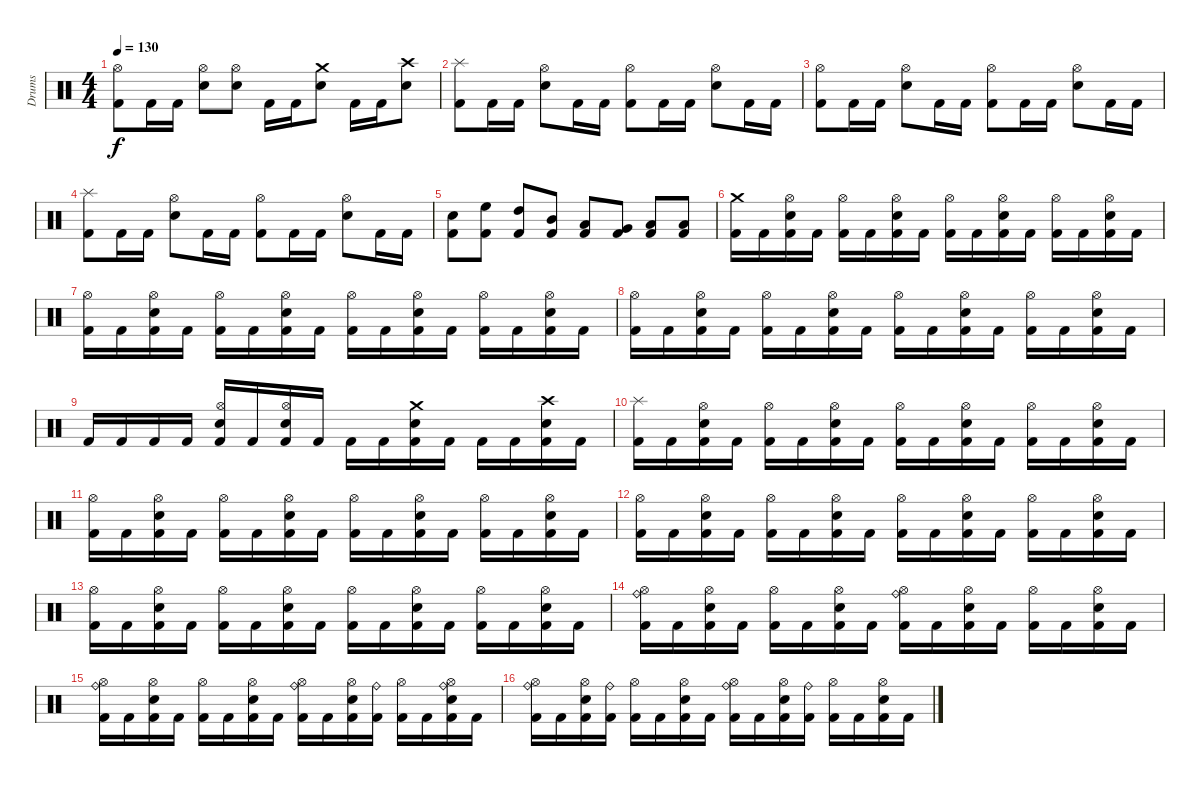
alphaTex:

\track ("Drums" "Drums") {instrument percussion}
\staff {score}
\articulation defaults
\ts (4 4)
\tempo 130
\clef neutral
\ks c
("Kick (hit) 2" "Hi-Hat (open)").8{dy f} "Kick (hit) 2".16 "Kick (hit) 2".16 ("Electric Snare (hit)" "Hi-Hat (open)").8 ("Electric Snare (hit)" "Hi-Hat (open)").8 "Kick (hit) 2".16 "Kick (hit) 2".16 ("Electric Snare (hit)" "Crash medium (hit)").8 "Kick (hit) 2".16 "Kick (hit) 2".16 ("Electric Snare (hit)" "Crash high (hit)").8 |
("Kick (hit) 2" "Splash (hit)").8 "Kick (hit) 2".16 "Kick (hit) 2".16 ("Electric Snare (hit)" "Hi-Hat (open)").8 "Kick (hit) 2".16 "Kick (hit) 2".16 ("Kick (hit) 2" "Hi-Hat (open)").8 "Kick (hit) 2".16 "Kick (hit) 2".16 ("Electric Snare (hit)" "Hi-Hat (open)").8 "Kick (hit) 2".16 "Kick (hit) 2".16 |
("Kick (hit) 2" "Hi-Hat (open)").8 "Kick (hit) 2".16 "Kick (hit) 2".16 ("Electric Snare (hit)" "Hi-Hat (open)").8 "Kick (hit) 2".16 "Kick (hit) 2".16 ("Kick (hit) 2" "Hi-Hat (open)").8 "Kick (hit) 2".16 "Kick (hit) 2".16 ("Electric Snare (hit)" "Hi-Hat (open)").8 "Kick (hit) 2".16 "Kick (hit) 2".16 |
("Kick (hit) 2" "Splash (hit)").8 "Kick (hit) 2".16 "Kick (hit) 2".16 ("Electric Snare (hit)" "Hi-Hat (open)").8 "Kick (hit) 2".16 "Kick (hit) 2".16 ("Kick (hit) 2" "Hi-Hat (open)").8 "Kick (hit) 2".16 "Kick (hit) 2".16 ("Electric Snare (hit)" "Hi-Hat (open)").8 "Kick (hit) 2".16 "Kick (hit) 2".16 |
("Kick (hit) 2" "Electric Snare (hit)").8 ("Kick (hit) 2" "High Floor Tom (hit)").8 ("Kick (hit) 2" "High Tom (hit)").8 ("Kick (hit) 2" "Mid Tom (hit)").8 ("Kick (hit) 2" "Low Tom (hit)").8 ("Kick (hit) 2" "Very Low Tom (hit)").8 ("Kick (hit) 2" "Low Floor Tom (hit)").8 ("Kick (hit) 2" "Low Floor Tom (hit)").8 |
\section ("" "")
("Kick (hit) 2" "Crash medium (hit)").16 "Kick (hit) 2".16 ("Kick (hit) 2" "Electric Snare (hit)" "Hi-Hat (open)").16 "Kick (hit) 2".16 ("Kick (hit) 2" "Hi-Hat (open)").16 "Kick (hit) 2".16 ("Kick (hit) 2" "Electric Snare (hit)" "Hi-Hat (open)").16 "Kick (hit) 2".16 ("Kick (hit) 2" "Hi-Hat (open)").16 "Kick (hit) 2".16 ("Kick (hit) 2" "Electric Snare (hit)" "Hi-Hat (open)").16 "Kick (hit) 2".16 ("Kick (hit) 2" "Hi-Hat (open)").16 "Kick (hit) 2".16 ("Kick (hit) 2" "Electric Snare (hit)" "Hi-Hat (open)").16 "Kick (hit) 2".16 |
("Kick (hit) 2" "Hi-Hat (open)").16 "Kick (hit) 2".16 ("Kick (hit) 2" "Electric Snare (hit)" "Hi-Hat (open)").16 "Kick (hit) 2".16 ("Kick (hit) 2" "Hi-Hat (open)").16 "Kick (hit) 2".16 ("Kick (hit) 2" "Electric Snare (hit)" "Hi-Hat (open)").16 "Kick (hit) 2".16 ("Kick (hit) 2" "Hi-Hat (open)").16 "Kick (hit) 2".16 ("Kick (hit) 2" "Electric Snare (hit)" "Hi-Hat (open)").16 "Kick (hit) 2".16 ("Kick (hit) 2" "Hi-Hat (open)").16 "Kick (hit) 2".16 ("Kick (hit) 2" "Electric Snare (hit)" "Hi-Hat (open)").16 "Kick (hit) 2".16 |
("Kick (hit) 2" "Hi-Hat (open)").16 "Kick (hit) 2".16 ("Kick (hit) 2" "Electric Snare (hit)" "Hi-Hat (open)").16 "Kick (hit) 2".16 ("Kick (hit) 2" "Hi-Hat (open)").16 "Kick (hit) 2".16 ("Kick (hit) 2" "Electric Snare (hit)" "Hi-Hat (open)").16 "Kick (hit) 2".16 ("Kick (hit) 2" "Hi-Hat (open)").16 "Kick (hit) 2".16 ("Kick (hit) 2" "Electric Snare (hit)" "Hi-Hat (open)").16 "Kick (hit) 2".16 ("Kick (hit) 2" "Hi-Hat (open)").16 "Kick (hit) 2".16 ("Kick (hit) 2" "Electric Snare (hit)" "Hi-Hat (open)").16 "Kick (hit) 2".16 |
"Kick (hit) 2".16 "Kick (hit) 2".16 "Kick (hit) 2".16 "Kick (hit) 2".16 ("Kick (hit) 2" "Electric Snare (hit)" "Hi-Hat (open)").16 "Kick (hit) 2".16 ("Kick (hit) 2" "Electric Snare (hit)" "Hi-Hat (open)").16 "Kick (hit) 2".16 "Kick (hit) 2".16 "Kick (hit) 2".16 ("Kick (hit) 2" "Electric Snare (hit)" "Crash medium (hit)").16 "Kick (hit) 2".16 "Kick (hit) 2".16 "Kick (hit) 2".16 ("Kick (hit) 2" "Electric Snare (hit)" "Crash high (hit)").16 "Kick (hit) 2".16 |
("Kick (hit) 2" "Splash (hit)").16 "Kick (hit) 2".16 ("Kick (hit) 2" "Electric Snare (hit)" "Hi-Hat (open)").16 "Kick (hit) 2".16 ("Kick (hit) 2" "Hi-Hat (open)").16 "Kick (hit) 2".16 ("Kick (hit) 2" "Electric Snare (hit)" "Hi-Hat (open)").16 "Kick (hit) 2".16 ("Kick (hit) 2" "Hi-Hat (open)").16 "Kick (hit) 2".16 ("Kick (hit) 2" "Electric Snare (hit)" "Hi-Hat (open)").16 "Kick (hit) 2".16 ("Kick (hit) 2" "Hi-Hat (open)").16 "Kick (hit) 2".16 ("Kick (hit) 2" "Electric Snare (hit)" "Hi-Hat (open)").16 "Kick (hit) 2".16 |
("Kick (hit) 2" "Hi-Hat (open)").16 "Kick (hit) 2".16 ("Kick (hit) 2" "Electric Snare (hit)" "Hi-Hat (open)").16 "Kick (hit) 2".16 ("Kick (hit) 2" "Hi-Hat (open)").16 "Kick (hit) 2".16 ("Kick (hit) 2" "Electric Snare (hit)" "Hi-Hat (open)").16 "Kick (hit) 2".16 ("Kick (hit) 2" "Hi-Hat (open)").16 "Kick (hit) 2".16 ("Kick (hit) 2" "Electric Snare (hit)" "Hi-Hat (open)").16 "Kick (hit) 2".16 ("Kick (hit) 2" "Hi-Hat (open)").16 "Kick (hit) 2".16 ("Kick (hit) 2" "Electric Snare (hit)" "Hi-Hat (open)").16 "Kick (hit) 2".16 |
("Kick (hit) 2" "Hi-Hat (open)").16 "Kick (hit) 2".16 ("Kick (hit) 2" "Electric Snare (hit)" "Hi-Hat (open)").16 "Kick (hit) 2".16 ("Kick (hit) 2" "Hi-Hat (open)").16 "Kick (hit) 2".16 ("Kick (hit) 2" "Electric Snare (hit)" "Hi-Hat (open)").16 "Kick (hit) 2".16 ("Kick (hit) 2" "Hi-Hat (open)").16 "Kick (hit) 2".16 ("Kick (hit) 2" "Electric Snare (hit)" "Hi-Hat (open)").16 "Kick (hit) 2".16 ("Kick (hit) 2" "Hi-Hat (open)").16 "Kick (hit) 2".16 ("Kick (hit) 2" "Electric Snare (hit)" "Hi-Hat (open)").16 "Kick (hit) 2".16 |
("Kick (hit) 2" "Hi-Hat (open)").16 "Kick (hit) 2".16 ("Kick (hit) 2" "Electric Snare (hit)" "Hi-Hat (open)").16 "Kick (hit) 2".16 ("Kick (hit) 2" "Hi-Hat (open)").16 "Kick (hit) 2".16 ("Kick (hit) 2" "Electric Snare (hit)" "Hi-Hat (open)").16 "Kick (hit) 2".16 ("Kick (hit) 2" "Hi-Hat (open)").16 "Kick (hit) 2".16 ("Kick (hit) 2" "Electric Snare (hit)" "Hi-Hat (open)").16 "Kick (hit) 2".16 ("Kick (hit) 2" "Hi-Hat (open)").16 "Kick (hit) 2".16 ("Kick (hit) 2" "Electric Snare (hit)" "Hi-Hat (open)").16 "Kick (hit) 2".16 |
("Kick (hit) 2" "Hi-Hat (open)" "Ride (bell)").16 "Kick (hit) 2".16 ("Kick (hit) 2" "Electric Snare (hit)" "Hi-Hat (open)").16 "Kick (hit) 2".16 ("Kick (hit) 2" "Hi-Hat (open)").16 "Kick (hit) 2".16 ("Kick (hit) 2" "Electric Snare (hit)" "Hi-Hat (open)").16 "Kick (hit) 2".16 ("Kick (hit) 2" "Hi-Hat (open)" "Ride (bell)").16 "Kick (hit) 2".16 ("Kick (hit) 2" "Electric Snare (hit)" "Hi-Hat (open)").16 "Kick (hit) 2".16 ("Kick (hit) 2" "Hi-Hat (open)").16 "Kick (hit) 2".16 ("Kick (hit) 2" "Electric Snare (hit)" "Hi-Hat (open)").16 "Kick (hit) 2".16 |
("Kick (hit) 2" "Hi-Hat (open)" "Ride (bell)").16 "Kick (hit) 2".16 ("Kick (hit) 2" "Electric Snare (hit)" "Hi-Hat (open)").16 "Kick (hit) 2".16 ("Kick (hit) 2" "Hi-Hat (open)").16 "Kick (hit) 2".16 ("Kick (hit) 2" "Electric Snare (hit)" "Hi-Hat (open)").16 "Kick (hit) 2".16 ("Kick (hit) 2" "Hi-Hat (open)" "Ride (bell)").16 "Kick (hit) 2".16 ("Kick (hit) 2" "Electric Snare (hit)" "Hi-Hat (open)").16 ("Kick (hit) 2" "Ride (bell)").16 ("Kick (hit) 2" "Hi-Hat (open)").16 "Kick (hit) 2".16 ("Kick (hit) 2" "Electric Snare (hit)" "Hi-Hat (open)" "Ride (bell)").16 "Kick (hit) 2".16 |
("Kick (hit) 2" "Hi-Hat (open)" "Ride (bell)").16 "Kick (hit) 2".16 ("Kick (hit) 2" "Electric Snare (hit)" "Hi-Hat (open)").16 ("Kick (hit) 2" "Ride (bell)").16 ("Kick (hit) 2" "Hi-Hat (open)").16 "Kick (hit) 2".16 ("Kick (hit) 2" "Electric Snare (hit)" "Hi-Hat (open)").16 "Kick (hit) 2".16 ("Kick (hit) 2" "Hi-Hat (open)" "Ride (bell)").16 "Kick (hit) 2".16 ("Kick (hit) 2" "Electric Snare (hit)" "Hi-Hat (open)").16 ("Kick (hit) 2" "Ride (bell)").16 ("Kick (hit) 2" "Hi-Hat (open)").16 "Kick (hit) 2".16 ("Kick (hit) 2" "Electric Snare (hit)" "Hi-Hat (open)").16 "Kick (hit) 2".16
